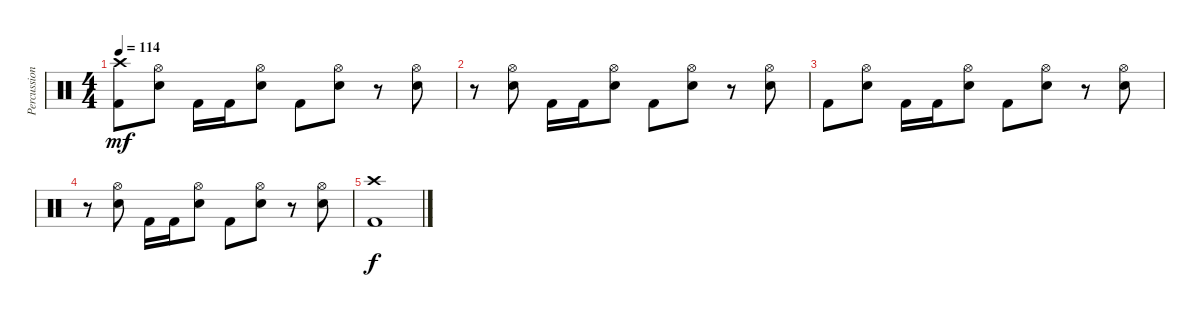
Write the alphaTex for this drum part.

\track ("Percussion" "Percussion") {instrument percussion}
\staff {score}
\articulation defaults
\ts (4 4)
\tempo 114
\clef neutral
\ks c
("Crash high (hit)" "Kick (hit) 2").8{dy mf} ("Hi-Hat (open)" "Snare (hit) 2").8 "Kick (hit) 2".16 "Kick (hit) 2".16 ("Hi-Hat (open)" "Snare (hit) 2").8 "Kick (hit) 2".8 ("Hi-Hat (open)" "Snare (hit) 2").8 r.8 ("Hi-Hat (open)" "Snare (hit) 2").8 |
r.8 ("Hi-Hat (open)" "Snare (hit) 2").8 "Kick (hit) 2".16 "Kick (hit) 2".16 ("Hi-Hat (open)" "Snare (hit) 2").8 "Kick (hit) 2".8 ("Hi-Hat (open)" "Snare (hit) 2").8 r.8 ("Hi-Hat (open)" "Snare (hit) 2").8 |
"Kick (hit) 2".8 ("Hi-Hat (open)" "Snare (hit) 2").8 "Kick (hit) 2".16 "Kick (hit) 2".16 ("Hi-Hat (open)" "Snare (hit) 2").8 "Kick (hit) 2".8 ("Hi-Hat (open)" "Snare (hit) 2").8 r.8 ("Hi-Hat (open)" "Snare (hit) 2").8 |
r.8 ("Hi-Hat (open)" "Snare (hit) 2").8 "Kick (hit) 2".16 "Kick (hit) 2".16 ("Hi-Hat (open)" "Snare (hit) 2").8 "Kick (hit) 2".8 ("Hi-Hat (open)" "Snare (hit) 2").8 r.8 ("Hi-Hat (open)" "Snare (hit) 2").8 |
("Crash high (hit)" "Kick (hit) 2").1{dy f}
